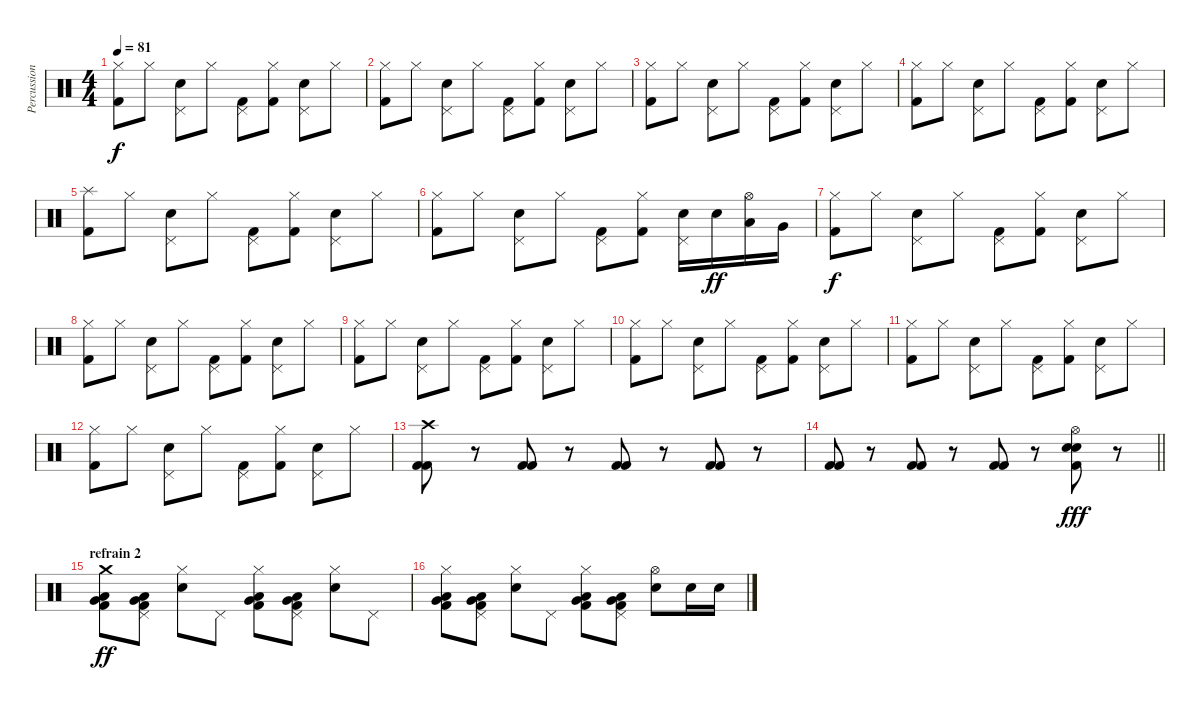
\track ("Percussions" "Percussion") {instrument percussion bank 16}
\staff {score}
\articulation defaults
\ts (4 4)
\tempo 81
\clef neutral
\ks c
("Hi-Hat (closed)" "Kick (hit) 2").8{dy f} "Hi-Hat (closed)".8 ("Pedal Hi-Hat (hit)" "Electric Snare (hit)").8 "Hi-Hat (closed)".8 ("Pedal Hi-Hat (hit)" "Kick (hit) 2").8 ("Hi-Hat (closed)" "Kick (hit) 2").8 ("Pedal Hi-Hat (hit)" "Electric Snare (hit)").8 "Hi-Hat (closed)".8 |
("Hi-Hat (closed)" "Kick (hit) 2").8 "Hi-Hat (closed)".8 ("Pedal Hi-Hat (hit)" "Electric Snare (hit)").8 "Hi-Hat (closed)".8 ("Pedal Hi-Hat (hit)" "Kick (hit) 2").8 ("Hi-Hat (closed)" "Kick (hit) 2").8 ("Pedal Hi-Hat (hit)" "Electric Snare (hit)").8 "Hi-Hat (closed)".8 |
("Hi-Hat (closed)" "Kick (hit) 2").8 "Hi-Hat (closed)".8 ("Pedal Hi-Hat (hit)" "Electric Snare (hit)").8 "Hi-Hat (closed)".8 ("Pedal Hi-Hat (hit)" "Kick (hit) 2").8 ("Hi-Hat (closed)" "Kick (hit) 2").8 ("Pedal Hi-Hat (hit)" "Electric Snare (hit)").8 "Hi-Hat (closed)".8 |
("Hi-Hat (closed)" "Kick (hit) 2").8 "Hi-Hat (closed)".8 ("Pedal Hi-Hat (hit)" "Electric Snare (hit)").8 "Hi-Hat (closed)".8 ("Pedal Hi-Hat (hit)" "Kick (hit) 2").8 ("Hi-Hat (closed)" "Kick (hit) 2").8 ("Pedal Hi-Hat (hit)" "Electric Snare (hit)").8 "Hi-Hat (closed)".8 |
("Splash (hit)" "Kick (hit) 2").8 "Hi-Hat (closed)".8 ("Pedal Hi-Hat (hit)" "Electric Snare (hit)").8 "Hi-Hat (closed)".8 ("Pedal Hi-Hat (hit)" "Kick (hit) 2").8 ("Hi-Hat (closed)" "Kick (hit) 2").8 ("Pedal Hi-Hat (hit)" "Electric Snare (hit)").8 "Hi-Hat (closed)".8 |
("Hi-Hat (closed)" "Kick (hit) 2").8 "Hi-Hat (closed)".8 ("Pedal Hi-Hat (hit)" "Electric Snare (hit)").8 "Hi-Hat (closed)".8 ("Pedal Hi-Hat (hit)" "Kick (hit) 2").8 ("Hi-Hat (closed)" "Kick (hit) 2").8 ("Pedal Hi-Hat (hit)" "Electric Snare (hit)").16 "Electric Snare (hit)".16{dy ff} ("Hi-Hat (open)" "Low Tom (hit)").16 "Very Low Tom (hit)".16 |
("Hi-Hat (closed)" "Kick (hit) 2").8{dy f} "Hi-Hat (closed)".8 ("Pedal Hi-Hat (hit)" "Electric Snare (hit)").8 "Hi-Hat (closed)".8 ("Pedal Hi-Hat (hit)" "Kick (hit) 2").8 ("Hi-Hat (closed)" "Kick (hit) 2").8 ("Pedal Hi-Hat (hit)" "Electric Snare (hit)").8 "Hi-Hat (closed)".8 |
("Hi-Hat (closed)" "Kick (hit) 2").8 "Hi-Hat (closed)".8 ("Pedal Hi-Hat (hit)" "Electric Snare (hit)").8 "Hi-Hat (closed)".8 ("Pedal Hi-Hat (hit)" "Kick (hit) 2").8 ("Hi-Hat (closed)" "Kick (hit) 2").8 ("Pedal Hi-Hat (hit)" "Electric Snare (hit)").8 "Hi-Hat (closed)".8 |
("Hi-Hat (closed)" "Kick (hit) 2").8 "Hi-Hat (closed)".8 ("Pedal Hi-Hat (hit)" "Electric Snare (hit)").8 "Hi-Hat (closed)".8 ("Pedal Hi-Hat (hit)" "Kick (hit) 2").8 ("Hi-Hat (closed)" "Kick (hit) 2").8 ("Pedal Hi-Hat (hit)" "Electric Snare (hit)").8 "Hi-Hat (closed)".8 |
("Hi-Hat (closed)" "Kick (hit) 2").8 "Hi-Hat (closed)".8 ("Pedal Hi-Hat (hit)" "Electric Snare (hit)").8 "Hi-Hat (closed)".8 ("Pedal Hi-Hat (hit)" "Kick (hit) 2").8 ("Hi-Hat (closed)" "Kick (hit) 2").8 ("Pedal Hi-Hat (hit)" "Electric Snare (hit)").8 "Hi-Hat (closed)".8 |
("Hi-Hat (closed)" "Kick (hit) 2").8 "Hi-Hat (closed)".8 ("Pedal Hi-Hat (hit)" "Electric Snare (hit)").8 "Hi-Hat (closed)".8 ("Pedal Hi-Hat (hit)" "Kick (hit) 2").8 ("Hi-Hat (closed)" "Kick (hit) 2").8 ("Pedal Hi-Hat (hit)" "Electric Snare (hit)").8 "Hi-Hat (closed)".8 |
("Hi-Hat (closed)" "Kick (hit) 2").8 "Hi-Hat (closed)".8 ("Pedal Hi-Hat (hit)" "Electric Snare (hit)").8 "Hi-Hat (closed)".8 ("Pedal Hi-Hat (hit)" "Kick (hit) 2").8 ("Hi-Hat (closed)" "Kick (hit) 2").8 ("Pedal Hi-Hat (hit)" "Electric Snare (hit)").8 "Hi-Hat (closed)".8 |
("Crash high (hit)" "Kick (hit) 2" "Kick (hit) 2").8 r.8 ("Kick (hit) 2" "Kick (hit) 2").8 r.8 ("Kick (hit) 2" "Kick (hit) 2").8 r.8 ("Kick (hit) 2" "Kick (hit) 2").8 r.8 |
\barLineRight lightlight
("Kick (hit) 2" "Kick (hit) 2").8 r.8 ("Kick (hit) 2" "Kick (hit) 2").8 r.8 ("Kick (hit) 2" "Kick (hit) 2").8 r.8 ("Hi-Hat (open)" "Electric Snare (hit)" "Electric Snare (hit)" "Kick (hit) 2").8{dy fff} r.8 |
\section ("" "refrain 2")
("Crash medium (hit)" "Low Tom (hit)" "Very Low Tom (hit)" "Kick (hit) 2").8{dy ff} ("Pedal Hi-Hat (hit)" "Low Tom (hit)" "Very Low Tom (hit)" "Kick (hit) 2").8 ("Hi-Hat (closed)" "Electric Snare (hit)").8 "Pedal Hi-Hat (hit)".8 ("Hi-Hat (closed)" "Low Tom (hit)" "Very Low Tom (hit)" "Kick (hit) 2").8 ("Pedal Hi-Hat (hit)" "Low Tom (hit)" "Very Low Tom (hit)" "Kick (hit) 2").8 ("Hi-Hat (closed)" "Electric Snare (hit)").8 "Pedal Hi-Hat (hit)".8 |
("Hi-Hat (closed)" "Low Tom (hit)" "Very Low Tom (hit)" "Kick (hit) 2").8 ("Pedal Hi-Hat (hit)" "Low Tom (hit)" "Very Low Tom (hit)" "Kick (hit) 2").8 ("Hi-Hat (closed)" "Electric Snare (hit)").8 "Pedal Hi-Hat (hit)".8 ("Hi-Hat (closed)" "Low Tom (hit)" "Very Low Tom (hit)" "Kick (hit) 2").8 ("Pedal Hi-Hat (hit)" "Low Tom (hit)" "Very Low Tom (hit)" "Kick (hit) 2").8 ("Hi-Hat (open)" "Electric Snare (hit)").8 "Electric Snare (hit)".16 "Electric Snare (hit)".16
